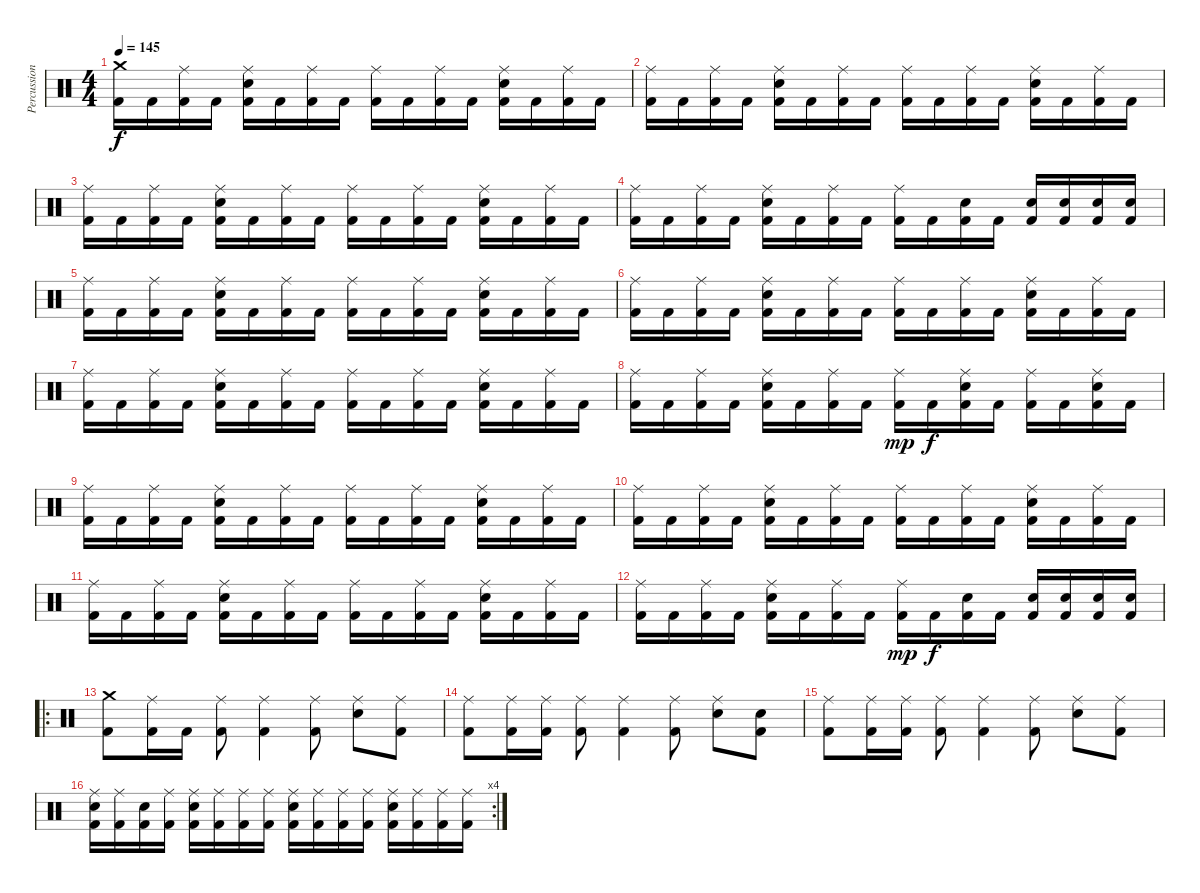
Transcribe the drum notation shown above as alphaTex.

\track ("Percussions" "Percussion") {instrument percussion}
\staff {score}
\articulation defaults
\ts (4 4)
\tempo 145
\clef neutral
\ks c
("Crash medium (hit)" "Kick (hit) 2").16{dy f} "Kick (hit) 2".16 ("Ride (middle)" "Kick (hit) 2").16 "Kick (hit) 2".16 ("Ride (middle)" "Snare (hit) 2" "Kick (hit) 2").16 "Kick (hit) 2".16 ("Ride (middle)" "Kick (hit) 2").16 "Kick (hit) 2".16 ("Ride (middle)" "Kick (hit) 2").16 "Kick (hit) 2".16 ("Ride (middle)" "Kick (hit) 2").16 "Kick (hit) 2".16 ("Ride (middle)" "Snare (hit) 2" "Kick (hit) 2").16 "Kick (hit) 2".16 ("Ride (middle)" "Kick (hit) 2").16 "Kick (hit) 2".16 |
("Ride (middle)" "Kick (hit) 2").16 "Kick (hit) 2".16 ("Ride (middle)" "Kick (hit) 2").16 "Kick (hit) 2".16 ("Ride (middle)" "Snare (hit) 2" "Kick (hit) 2").16 "Kick (hit) 2".16 ("Ride (middle)" "Kick (hit) 2").16 "Kick (hit) 2".16 ("Ride (middle)" "Kick (hit) 2").16 "Kick (hit) 2".16 ("Ride (middle)" "Kick (hit) 2").16 "Kick (hit) 2".16 ("Ride (middle)" "Snare (hit) 2" "Kick (hit) 2").16 "Kick (hit) 2".16 ("Ride (middle)" "Kick (hit) 2").16 "Kick (hit) 2".16 |
("Ride (middle)" "Kick (hit) 2").16 "Kick (hit) 2".16 ("Ride (middle)" "Kick (hit) 2").16 "Kick (hit) 2".16 ("Ride (middle)" "Snare (hit) 2" "Kick (hit) 2").16 "Kick (hit) 2".16 ("Ride (middle)" "Kick (hit) 2").16 "Kick (hit) 2".16 ("Ride (middle)" "Kick (hit) 2").16 "Kick (hit) 2".16 ("Ride (middle)" "Kick (hit) 2").16 "Kick (hit) 2".16 ("Ride (middle)" "Snare (hit) 2" "Kick (hit) 2").16 "Kick (hit) 2".16 ("Ride (middle)" "Kick (hit) 2").16 "Kick (hit) 2".16 |
("Ride (middle)" "Kick (hit) 2").16 "Kick (hit) 2".16 ("Ride (middle)" "Kick (hit) 2").16 "Kick (hit) 2".16 ("Ride (middle)" "Snare (hit) 2" "Kick (hit) 2").16 "Kick (hit) 2".16 ("Ride (middle)" "Kick (hit) 2").16 "Kick (hit) 2".16 ("Ride (middle)" "Kick (hit) 2").16 "Kick (hit) 2".16 ("Snare (hit) 2" "Kick (hit) 2").16 "Kick (hit) 2".16 ("Snare (hit) 2" "Kick (hit) 2").16 ("Snare (hit) 2" "Kick (hit) 2").16 ("Snare (hit) 2" "Kick (hit) 2").16 ("Snare (hit) 2" "Kick (hit) 2").16 |
("Ride (middle)" "Kick (hit) 2").16 "Kick (hit) 2".16 ("Ride (middle)" "Kick (hit) 2").16 "Kick (hit) 2".16 ("Ride (middle)" "Snare (hit) 2" "Kick (hit) 2").16 "Kick (hit) 2".16 ("Ride (middle)" "Kick (hit) 2").16 "Kick (hit) 2".16 ("Ride (middle)" "Kick (hit) 2").16 "Kick (hit) 2".16 ("Ride (middle)" "Kick (hit) 2").16 "Kick (hit) 2".16 ("Ride (middle)" "Snare (hit) 2" "Kick (hit) 2").16 "Kick (hit) 2".16 ("Ride (middle)" "Kick (hit) 2").16 "Kick (hit) 2".16 |
("Ride (middle)" "Kick (hit) 2").16 "Kick (hit) 2".16 ("Ride (middle)" "Kick (hit) 2").16 "Kick (hit) 2".16 ("Ride (middle)" "Snare (hit) 2" "Kick (hit) 2").16 "Kick (hit) 2".16 ("Ride (middle)" "Kick (hit) 2").16 "Kick (hit) 2".16 ("Ride (middle)" "Kick (hit) 2").16 "Kick (hit) 2".16 ("Ride (middle)" "Kick (hit) 2").16 "Kick (hit) 2".16 ("Ride (middle)" "Snare (hit) 2" "Kick (hit) 2").16 "Kick (hit) 2".16 ("Ride (middle)" "Kick (hit) 2").16 "Kick (hit) 2".16 |
("Ride (middle)" "Kick (hit) 2").16 "Kick (hit) 2".16 ("Ride (middle)" "Kick (hit) 2").16 "Kick (hit) 2".16 ("Ride (middle)" "Snare (hit) 2" "Kick (hit) 2").16 "Kick (hit) 2".16 ("Ride (middle)" "Kick (hit) 2").16 "Kick (hit) 2".16 ("Ride (middle)" "Kick (hit) 2").16 "Kick (hit) 2".16 ("Ride (middle)" "Kick (hit) 2").16 "Kick (hit) 2".16 ("Ride (middle)" "Snare (hit) 2" "Kick (hit) 2").16 "Kick (hit) 2".16 ("Ride (middle)" "Kick (hit) 2").16 "Kick (hit) 2".16 |
("Ride (middle)" "Kick (hit) 2").16 "Kick (hit) 2".16 ("Ride (middle)" "Kick (hit) 2").16 "Kick (hit) 2".16 ("Ride (middle)" "Snare (hit) 2" "Kick (hit) 2").16 "Kick (hit) 2".16 ("Ride (middle)" "Kick (hit) 2").16 "Kick (hit) 2".16 ("Ride (middle)" "Kick (hit) 2").16{dy mp} "Kick (hit) 2".16{dy f} ("Ride (middle)" "Snare (hit) 2" "Kick (hit) 2").16 "Kick (hit) 2".16 ("Ride (middle)" "Kick (hit) 2").16 "Kick (hit) 2".16 ("Ride (middle)" "Snare (hit) 2" "Kick (hit) 2").16 "Kick (hit) 2".16 |
("Ride (middle)" "Kick (hit) 2").16 "Kick (hit) 2".16 ("Ride (middle)" "Kick (hit) 2").16 "Kick (hit) 2".16 ("Ride (middle)" "Snare (hit) 2" "Kick (hit) 2").16 "Kick (hit) 2".16 ("Ride (middle)" "Kick (hit) 2").16 "Kick (hit) 2".16 ("Ride (middle)" "Kick (hit) 2").16 "Kick (hit) 2".16 ("Ride (middle)" "Kick (hit) 2").16 "Kick (hit) 2".16 ("Ride (middle)" "Snare (hit) 2" "Kick (hit) 2").16 "Kick (hit) 2".16 ("Ride (middle)" "Kick (hit) 2").16 "Kick (hit) 2".16 |
("Ride (middle)" "Kick (hit) 2").16 "Kick (hit) 2".16 ("Ride (middle)" "Kick (hit) 2").16 "Kick (hit) 2".16 ("Ride (middle)" "Snare (hit) 2" "Kick (hit) 2").16 "Kick (hit) 2".16 ("Ride (middle)" "Kick (hit) 2").16 "Kick (hit) 2".16 ("Ride (middle)" "Kick (hit) 2").16 "Kick (hit) 2".16 ("Ride (middle)" "Kick (hit) 2").16 "Kick (hit) 2".16 ("Ride (middle)" "Snare (hit) 2" "Kick (hit) 2").16 "Kick (hit) 2".16 ("Ride (middle)" "Kick (hit) 2").16 "Kick (hit) 2".16 |
("Ride (middle)" "Kick (hit) 2").16 "Kick (hit) 2".16 ("Ride (middle)" "Kick (hit) 2").16 "Kick (hit) 2".16 ("Ride (middle)" "Snare (hit) 2" "Kick (hit) 2").16 "Kick (hit) 2".16 ("Ride (middle)" "Kick (hit) 2").16 "Kick (hit) 2".16 ("Ride (middle)" "Kick (hit) 2").16 "Kick (hit) 2".16 ("Ride (middle)" "Kick (hit) 2").16 "Kick (hit) 2".16 ("Ride (middle)" "Snare (hit) 2" "Kick (hit) 2").16 "Kick (hit) 2".16 ("Ride (middle)" "Kick (hit) 2").16 "Kick (hit) 2".16 |
("Ride (middle)" "Kick (hit) 2").16 "Kick (hit) 2".16 ("Ride (middle)" "Kick (hit) 2").16 "Kick (hit) 2".16 ("Ride (middle)" "Snare (hit) 2" "Kick (hit) 2").16 "Kick (hit) 2".16 ("Ride (middle)" "Kick (hit) 2").16 "Kick (hit) 2".16 ("Ride (middle)" "Kick (hit) 2").16{dy mp} "Kick (hit) 2".16{dy f} ("Snare (hit) 2" "Kick (hit) 2").16 "Kick (hit) 2".16 ("Snare (hit) 2" "Kick (hit) 2").16 ("Snare (hit) 2" "Kick (hit) 2").16 ("Snare (hit) 2" "Kick (hit) 2").16 ("Snare (hit) 2" "Kick (hit) 2").16 |
\ro
("Crash medium (hit)" "Kick (hit) 2").8 ("Ride (middle)" "Kick (hit) 2").16 "Kick (hit) 2".16 ("Ride (middle)" "Kick (hit) 2").8 ("Ride (middle)" "Kick (hit) 2").4 ("Ride (middle)" "Kick (hit) 2").8 ("Ride (middle)" "Snare (hit) 2").8 ("Ride (middle)" "Kick (hit) 2").8 |
("Ride (middle)" "Kick (hit) 2").8 ("Ride (middle)" "Kick (hit) 2").16 ("Ride (middle)" "Kick (hit) 2").16 ("Ride (middle)" "Kick (hit) 2").8 ("Ride (middle)" "Kick (hit) 2").4 ("Ride (middle)" "Kick (hit) 2").8 ("Ride (middle)" "Snare (hit) 2").8 ("Snare (hit)" "Kick (hit) 2").8 |
("Ride (middle)" "Kick (hit) 2").8 ("Ride (middle)" "Kick (hit) 2").16 ("Ride (middle)" "Kick (hit) 2").16 ("Ride (middle)" "Kick (hit) 2").8 ("Ride (middle)" "Kick (hit) 2").4 ("Ride (middle)" "Kick (hit) 2").8 ("Ride (middle)" "Snare (hit) 2").8 ("Ride (middle)" "Kick (hit) 2").8 |
\rc 4
("Ride (middle)" "Snare (hit) 2" "Kick (hit) 2").16 ("Ride (middle)" "Kick (hit) 2").16 ("Snare (hit)" "Kick (hit) 2").16 ("Ride (middle)" "Kick (hit) 2").16 ("Ride (middle)" "Snare (hit) 2" "Kick (hit) 2").16 ("Ride (middle)" "Kick (hit) 2").16 ("Ride (middle)" "Kick (hit) 2").16 ("Ride (middle)" "Kick (hit) 2").16 ("Ride (middle)" "Snare (hit) 2" "Kick (hit) 2").16 ("Ride (middle)" "Kick (hit) 2").16 ("Ride (middle)" "Kick (hit) 2").16 ("Ride (middle)" "Kick (hit) 2").16 ("Ride (middle)" "Snare (hit) 2" "Kick (hit) 2").16 ("Ride (middle)" "Kick (hit) 2").16 ("Ride (middle)" "Kick (hit) 2").16 ("Ride (middle)" "Kick (hit) 2").16
